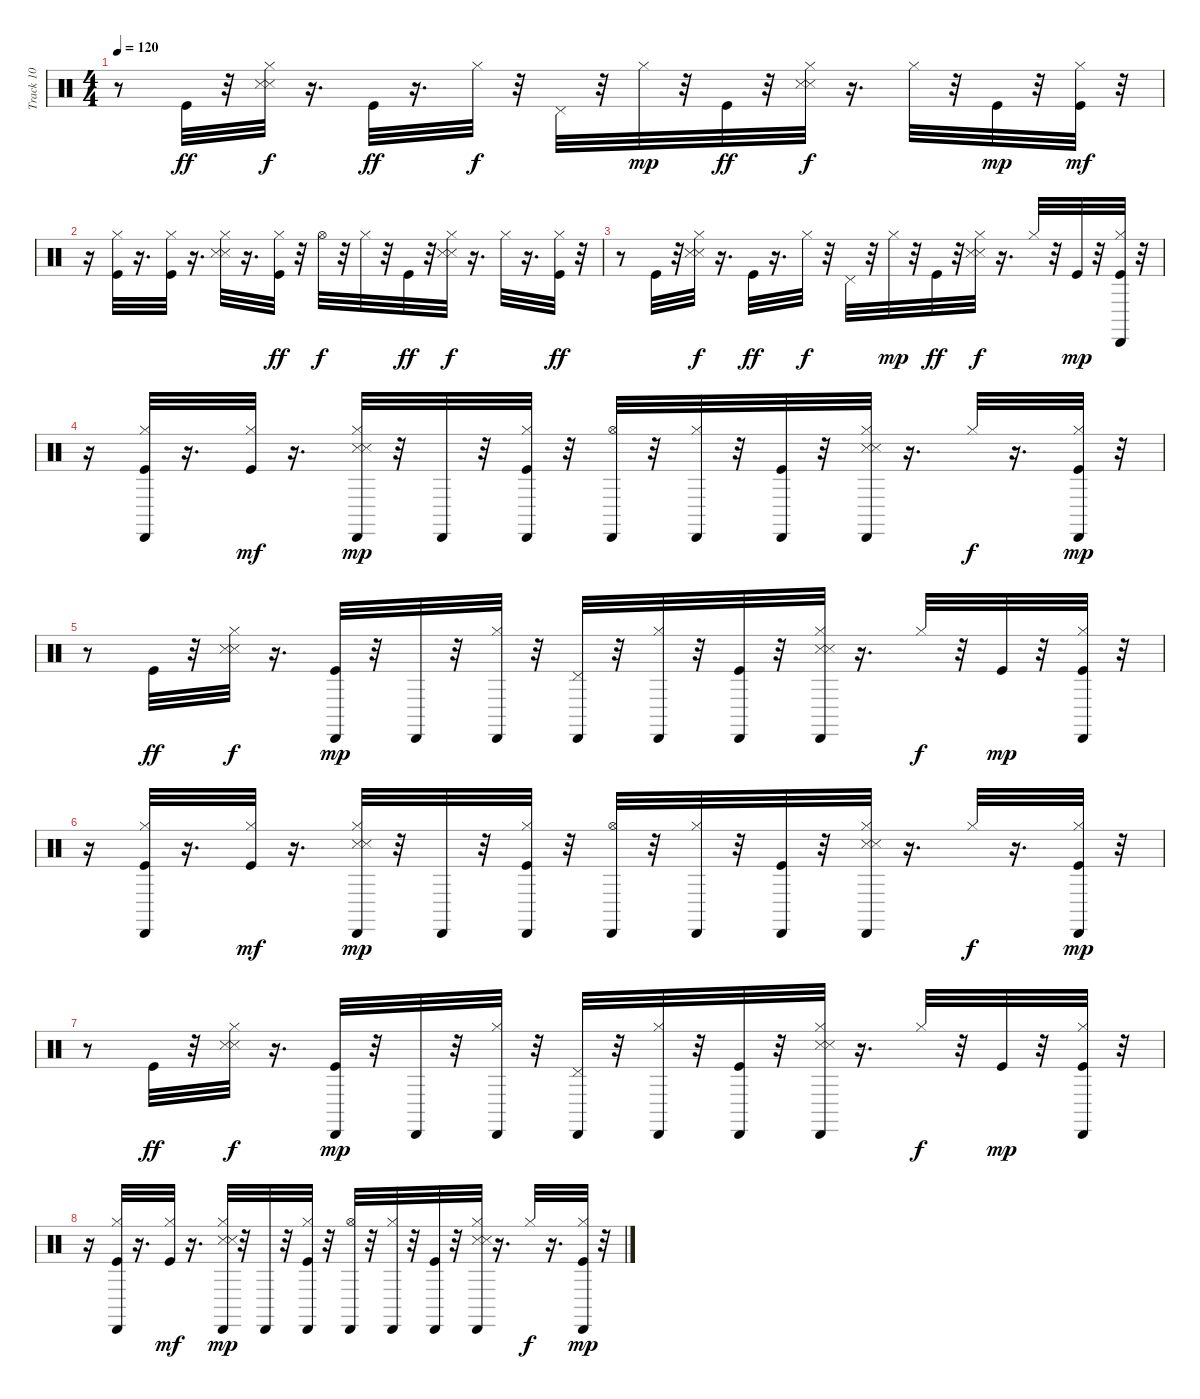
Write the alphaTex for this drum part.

\track ("Track 10" "Track 10") {instrument percussion}
\staff {score}
\articulation defaults
\ts (4 4)
\tempo 120
\clef neutral
\ks c
r.8{dy ff} "Kick (hit)".32 r.32 ("Metronome (hit)" "Snare (side stick) 3" "Hi-Hat (closed)").32{dy f} r.16{d} "Kick (hit)".32{dy ff} r.16{d} "Hi-Hat (closed)".32{dy f} r.32 "Pedal Hi-Hat (hit)".32 r.32 "Hi-Hat (closed)".32{dy mp} r.32 "Kick (hit)".32{dy ff} r.32 ("Metronome (hit)" "Snare (side stick) 3" "Hi-Hat (closed)").32{dy f} r.16{d} "Hi-Hat (closed)".32 r.32 "Kick (hit)".32{dy mp} r.32 ("Kick (hit)" "Hi-Hat (closed)").32{dy mf} r.32 |
r.16 ("Kick (hit)" "Hi-Hat (closed)").32 r.16{d} ("Kick (hit)" "Hi-Hat (closed)").32 r.16{d} ("Metronome (hit)" "Snare (side stick) 3" "Hi-Hat (closed)").32 r.16{d} ("Kick (hit)" "Hi-Hat (closed)").32{dy ff} r.32 "Hi-Hat (open)".32{dy f} r.32 "Hi-Hat (closed)".32 r.32 "Kick (hit)".32{dy ff} r.32 ("Metronome (hit)" "Snare (side stick) 3" "Hi-Hat (closed)").32{dy f} r.16{d} "Hi-Hat (closed)".32 r.16{d} ("Kick (hit)" "Hi-Hat (closed)").32{dy ff} r.32 |
r.8 "Kick (hit)".32 r.32 ("Metronome (hit)" "Snare (side stick) 3" "Hi-Hat (closed)").32{dy f} r.16{d} "Kick (hit)".32{dy ff} r.16{d} "Hi-Hat (closed)".32{dy f} r.32 "Pedal Hi-Hat (hit)".32 r.32 "Hi-Hat (closed)".32{dy mp} r.32 "Kick (hit)".32{dy ff} r.32 ("Metronome (hit)" "Snare (side stick) 3" "Hi-Hat (closed)").32{dy f} r.16{d} "Hi-Hat (closed)".32 r.32 "Kick (hit)".32{dy mp} r.32 ("Kick (hit)" "Hi-Hat (closed)" "Cabasa (hit)").32 r.32 |
r.16 ("Kick (hit)" "Hi-Hat (closed)" "Cabasa (hit)").32 r.16{d} ("Kick (hit)" "Hi-Hat (closed)").32{dy mf} r.16{d} ("Metronome (hit)" "Snare (side stick) 3" "Hi-Hat (closed)" "Cabasa (hit)").32{dy mp} r.32 "Cabasa (hit)".32 r.32 ("Kick (hit)" "Hi-Hat (closed)" "Cabasa (hit)").32 r.32 ("Hi-Hat (open)" "Cabasa (hit)").32 r.32 ("Hi-Hat (closed)" "Cabasa (hit)").32 r.32 ("Kick (hit)" "Cabasa (hit)").32 r.32 ("Metronome (hit)" "Snare (side stick) 3" "Hi-Hat (closed)" "Cabasa (hit)").32 r.16{d} "Hi-Hat (closed)".32{dy f} r.16{d} ("Kick (hit)" "Hi-Hat (closed)" "Cabasa (hit)").32{dy mp} r.32 |
r.8 "Kick (hit)".32{dy ff} r.32 ("Metronome (hit)" "Snare (side stick) 3" "Hi-Hat (closed)").32{dy f} r.16{d} ("Kick (hit)" "Cabasa (hit)").32{dy mp} r.32 "Cabasa (hit)".32 r.32 ("Hi-Hat (closed)" "Cabasa (hit)").32 r.32 ("Pedal Hi-Hat (hit)" "Cabasa (hit)").32 r.32 ("Hi-Hat (closed)" "Cabasa (hit)").32 r.32 ("Kick (hit)" "Cabasa (hit)").32 r.32 ("Metronome (hit)" "Snare (side stick) 3" "Hi-Hat (closed)" "Cabasa (hit)").32 r.16{d} "Hi-Hat (closed)".32{dy f} r.32 "Kick (hit)".32{dy mp} r.32 ("Kick (hit)" "Hi-Hat (closed)" "Cabasa (hit)").32 r.32 |
r.16 ("Kick (hit)" "Hi-Hat (closed)" "Cabasa (hit)").32 r.16{d} ("Kick (hit)" "Hi-Hat (closed)").32{dy mf} r.16{d} ("Metronome (hit)" "Snare (side stick) 3" "Hi-Hat (closed)" "Cabasa (hit)").32{dy mp} r.32 "Cabasa (hit)".32 r.32 ("Kick (hit)" "Hi-Hat (closed)" "Cabasa (hit)").32 r.32 ("Hi-Hat (open)" "Cabasa (hit)").32 r.32 ("Hi-Hat (closed)" "Cabasa (hit)").32 r.32 ("Kick (hit)" "Cabasa (hit)").32 r.32 ("Metronome (hit)" "Snare (side stick) 3" "Hi-Hat (closed)" "Cabasa (hit)").32 r.16{d} "Hi-Hat (closed)".32{dy f} r.16{d} ("Kick (hit)" "Hi-Hat (closed)" "Cabasa (hit)").32{dy mp} r.32 |
r.8 "Kick (hit)".32{dy ff} r.32 ("Metronome (hit)" "Snare (side stick) 3" "Hi-Hat (closed)").32{dy f} r.16{d} ("Kick (hit)" "Cabasa (hit)").32{dy mp} r.32 "Cabasa (hit)".32 r.32 ("Hi-Hat (closed)" "Cabasa (hit)").32 r.32 ("Pedal Hi-Hat (hit)" "Cabasa (hit)").32 r.32 ("Hi-Hat (closed)" "Cabasa (hit)").32 r.32 ("Kick (hit)" "Cabasa (hit)").32 r.32 ("Metronome (hit)" "Snare (side stick) 3" "Hi-Hat (closed)" "Cabasa (hit)").32 r.16{d} "Hi-Hat (closed)".32{dy f} r.32 "Kick (hit)".32{dy mp} r.32 ("Kick (hit)" "Hi-Hat (closed)" "Cabasa (hit)").32 r.32 |
r.16 ("Kick (hit)" "Hi-Hat (closed)" "Cabasa (hit)").32 r.16{d} ("Kick (hit)" "Hi-Hat (closed)").32{dy mf} r.16{d} ("Metronome (hit)" "Snare (side stick) 3" "Hi-Hat (closed)" "Cabasa (hit)").32{dy mp} r.32 "Cabasa (hit)".32 r.32 ("Kick (hit)" "Hi-Hat (closed)" "Cabasa (hit)").32 r.32 ("Hi-Hat (open)" "Cabasa (hit)").32 r.32 ("Hi-Hat (closed)" "Cabasa (hit)").32 r.32 ("Kick (hit)" "Cabasa (hit)").32 r.32 ("Metronome (hit)" "Snare (side stick) 3" "Hi-Hat (closed)" "Cabasa (hit)").32 r.16{d} "Hi-Hat (closed)".32{dy f} r.16{d} ("Kick (hit)" "Hi-Hat (closed)" "Cabasa (hit)").32{dy mp} r.32
